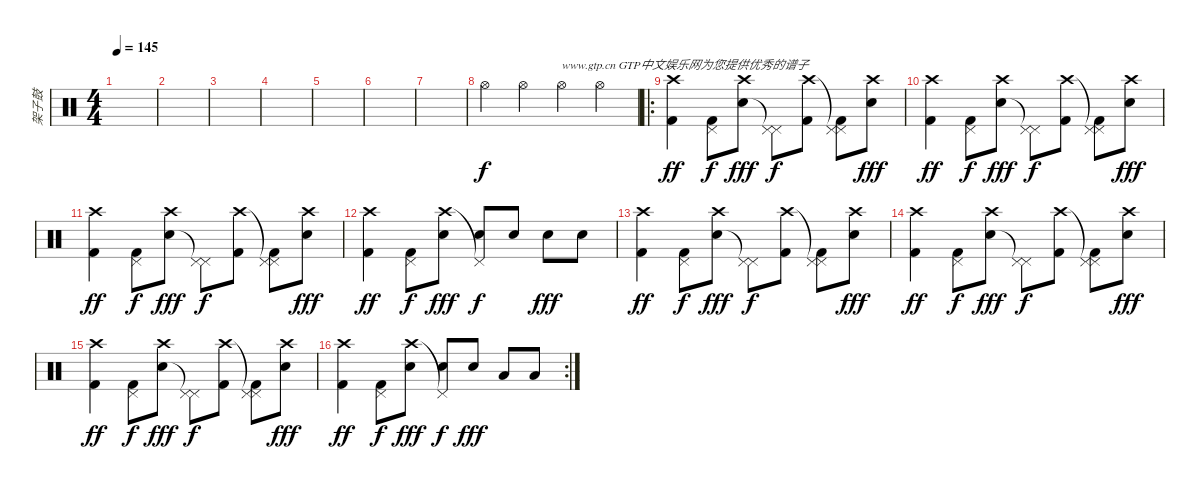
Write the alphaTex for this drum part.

\track ("架子鼓" "架子鼓") {instrument percussion}
\staff {score}
\articulation defaults
\ts (4 4)
\tempo 145
\clef neutral
\ks c
|
|
|
|
|
|
|
"Hi-Hat (open)".4 "Hi-Hat (open)".4 "Hi-Hat (open)".4{txt "www.gtp.cn GTP中文娱乐网为您提供优秀的谱子"} "Hi-Hat (open)".4 |
\ro
("Kick (hit) 2" "Crash high (hit)").4{dy ff} ("Kick (hit) 2" "Pedal Hi-Hat (hit)").8{dy f} ("Snare (hit) 2" "Crash high (hit)").8{dy fff} ("Pedal Hi-Hat (hit)"{t} "Pedal Hi-Hat (hit)").8{dy f} ("Kick (hit) 2" "Crash high (hit)").8 ("Kick (hit) 2" "Pedal Hi-Hat (hit)"{t} "Pedal Hi-Hat (hit)").8 ("Snare (hit) 2" "Crash high (hit)").8{dy fff} |
("Kick (hit) 2" "Crash high (hit)").4{dy ff} ("Kick (hit) 2" "Pedal Hi-Hat (hit)").8{dy f} ("Snare (hit) 2" "Crash high (hit)").8{dy fff} ("Pedal Hi-Hat (hit)"{t} "Pedal Hi-Hat (hit)").8{dy f} ("Kick (hit) 2" "Crash high (hit)").8 ("Kick (hit) 2" "Pedal Hi-Hat (hit)"{t} "Pedal Hi-Hat (hit)").8 ("Snare (hit) 2" "Crash high (hit)").8{dy fff} |
("Kick (hit) 2" "Crash high (hit)").4{dy ff} ("Kick (hit) 2" "Pedal Hi-Hat (hit)").8{dy f} ("Snare (hit) 2" "Crash high (hit)").8{dy fff} ("Pedal Hi-Hat (hit)"{t} "Pedal Hi-Hat (hit)").8{dy f} ("Kick (hit) 2" "Crash high (hit)").8 ("Kick (hit) 2" "Pedal Hi-Hat (hit)"{t} "Pedal Hi-Hat (hit)").8 ("Snare (hit) 2" "Crash high (hit)").8{dy fff} |
("Kick (hit) 2" "Crash high (hit)").4{dy ff} ("Kick (hit) 2" "Pedal Hi-Hat (hit)").8{dy f} ("Snare (hit) 2" "Crash high (hit)").8{dy fff} ("Snare (hit) 2" "Pedal Hi-Hat (hit)"{t}).8{dy f} "Snare (hit) 2".8 "Snare (hit) 2".8{dy fff} "Snare (hit) 2".8 |
("Kick (hit) 2" "Crash high (hit)").4{dy ff} ("Kick (hit) 2" "Pedal Hi-Hat (hit)").8{dy f} ("Snare (hit) 2" "Crash high (hit)").8{dy fff} ("Pedal Hi-Hat (hit)"{t} "Pedal Hi-Hat (hit)").8{dy f} ("Kick (hit) 2" "Crash high (hit)").8 ("Kick (hit) 2" "Pedal Hi-Hat (hit)"{t} "Pedal Hi-Hat (hit)").8 ("Snare (hit) 2" "Crash high (hit)").8{dy fff} |
("Kick (hit) 2" "Crash high (hit)").4{dy ff} ("Kick (hit) 2" "Pedal Hi-Hat (hit)").8{dy f} ("Snare (hit) 2" "Crash high (hit)").8{dy fff} ("Pedal Hi-Hat (hit)"{t} "Pedal Hi-Hat (hit)").8{dy f} ("Kick (hit) 2" "Crash high (hit)").8 ("Kick (hit) 2" "Pedal Hi-Hat (hit)"{t} "Pedal Hi-Hat (hit)").8 ("Snare (hit) 2" "Crash high (hit)").8{dy fff} |
("Kick (hit) 2" "Crash high (hit)").4{dy ff} ("Kick (hit) 2" "Pedal Hi-Hat (hit)").8{dy f} ("Snare (hit) 2" "Crash high (hit)").8{dy fff} ("Pedal Hi-Hat (hit)"{t} "Pedal Hi-Hat (hit)").8{dy f} ("Kick (hit) 2" "Crash high (hit)").8 ("Kick (hit) 2" "Pedal Hi-Hat (hit)"{t} "Pedal Hi-Hat (hit)").8 ("Snare (hit) 2" "Crash high (hit)").8{dy fff} |
\rc 2
("Kick (hit) 2" "Crash high (hit)").4{dy ff} ("Kick (hit) 2" "Pedal Hi-Hat (hit)").8{dy f} ("Snare (hit) 2" "Crash high (hit)").8{dy fff} ("Snare (hit) 2" "Pedal Hi-Hat (hit)"{t}).8{dy f} "Snare (hit) 2".8{dy fff} "Low Tom (hit)".8 "Low Tom (hit)".8
